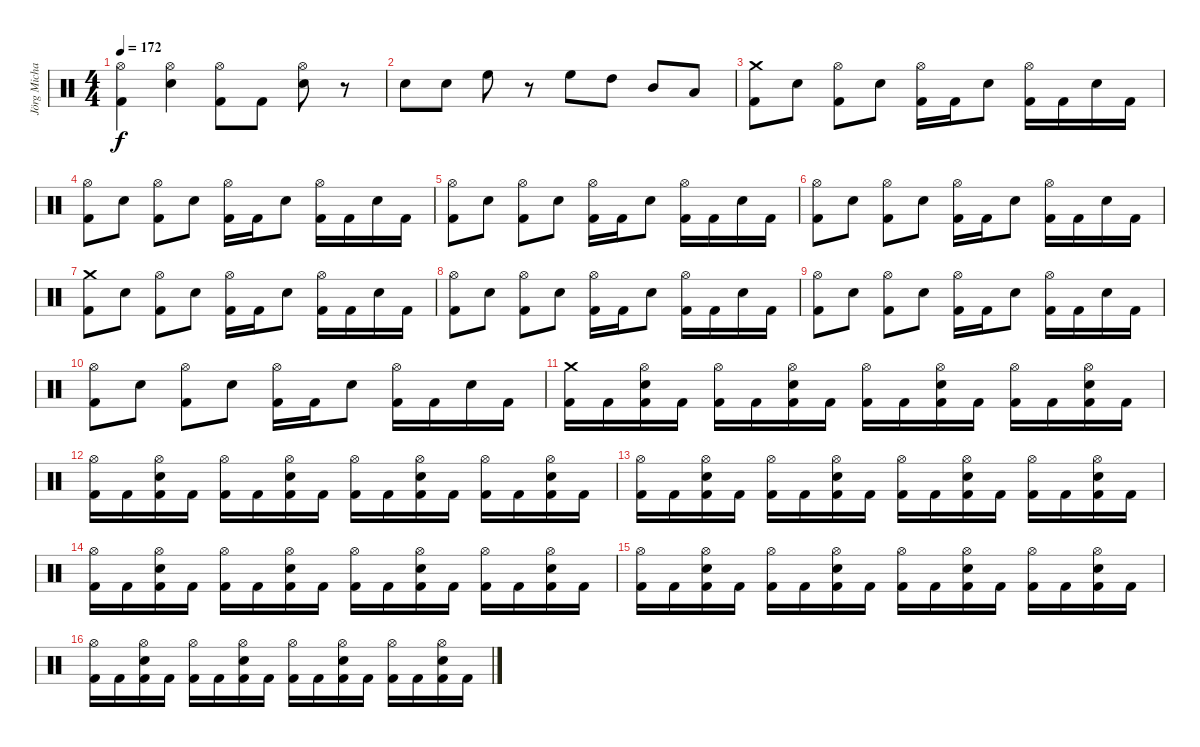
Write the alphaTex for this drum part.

\track ("Jörg Michael" "Jörg Micha") {instrument percussion}
\staff {score}
\articulation defaults
\ts (4 4)
\tempo 172
\clef neutral
\ks c
("Hi-Hat (open)" "Kick (hit) 2").4{dy f} ("Hi-Hat (open)" "Electric Snare (hit)").4 ("Hi-Hat (open)" "Kick (hit) 2").8 "Kick (hit) 2".8 ("Hi-Hat (open)" "Electric Snare (hit)").8 r.8 |
"Electric Snare (hit)".8 "Electric Snare (hit)".8 "High Floor Tom (hit)".8 r.8 "High Floor Tom (hit)".8 "High Tom (hit)".8 "Mid Tom (hit)".8 "Low Tom (hit)".8 |
("Crash medium (hit)" "Kick (hit) 2").8 "Electric Snare (hit)".8 ("Hi-Hat (open)" "Kick (hit) 2").8 "Electric Snare (hit)".8 ("Hi-Hat (open)" "Kick (hit) 2").16 "Kick (hit) 2".16 "Electric Snare (hit)".8 ("Hi-Hat (open)" "Kick (hit) 2").16 "Kick (hit) 2".16 "Electric Snare (hit)".16 "Kick (hit) 2".16 |
("Hi-Hat (open)" "Kick (hit) 2").8 "Electric Snare (hit)".8 ("Hi-Hat (open)" "Kick (hit) 2").8 "Electric Snare (hit)".8 ("Hi-Hat (open)" "Kick (hit) 2").16 "Kick (hit) 2".16 "Electric Snare (hit)".8 ("Hi-Hat (open)" "Kick (hit) 2").16 "Kick (hit) 2".16 "Electric Snare (hit)".16 "Kick (hit) 2".16 |
("Hi-Hat (open)" "Kick (hit) 2").8 "Electric Snare (hit)".8 ("Hi-Hat (open)" "Kick (hit) 2").8 "Electric Snare (hit)".8 ("Hi-Hat (open)" "Kick (hit) 2").16 "Kick (hit) 2".16 "Electric Snare (hit)".8 ("Hi-Hat (open)" "Kick (hit) 2").16 "Kick (hit) 2".16 "Electric Snare (hit)".16 "Kick (hit) 2".16 |
("Hi-Hat (open)" "Kick (hit) 2").8 "Electric Snare (hit)".8 ("Hi-Hat (open)" "Kick (hit) 2").8 "Electric Snare (hit)".8 ("Hi-Hat (open)" "Kick (hit) 2").16 "Kick (hit) 2".16 "Electric Snare (hit)".8 ("Hi-Hat (open)" "Kick (hit) 2").16 "Kick (hit) 2".16 "Electric Snare (hit)".16 "Kick (hit) 2".16 |
("Crash medium (hit)" "Kick (hit) 2").8 "Electric Snare (hit)".8 ("Hi-Hat (open)" "Kick (hit) 2").8 "Electric Snare (hit)".8 ("Hi-Hat (open)" "Kick (hit) 2").16 "Kick (hit) 2".16 "Electric Snare (hit)".8 ("Hi-Hat (open)" "Kick (hit) 2").16 "Kick (hit) 2".16 "Electric Snare (hit)".16 "Kick (hit) 2".16 |
("Hi-Hat (open)" "Kick (hit) 2").8 "Electric Snare (hit)".8 ("Hi-Hat (open)" "Kick (hit) 2").8 "Electric Snare (hit)".8 ("Hi-Hat (open)" "Kick (hit) 2").16 "Kick (hit) 2".16 "Electric Snare (hit)".8 ("Hi-Hat (open)" "Kick (hit) 2").16 "Kick (hit) 2".16 "Electric Snare (hit)".16 "Kick (hit) 2".16 |
("Hi-Hat (open)" "Kick (hit) 2").8 "Electric Snare (hit)".8 ("Hi-Hat (open)" "Kick (hit) 2").8 "Electric Snare (hit)".8 ("Hi-Hat (open)" "Kick (hit) 2").16 "Kick (hit) 2".16 "Electric Snare (hit)".8 ("Hi-Hat (open)" "Kick (hit) 2").16 "Kick (hit) 2".16 "Electric Snare (hit)".16 "Kick (hit) 2".16 |
("Hi-Hat (open)" "Kick (hit) 2").8 "Electric Snare (hit)".8 ("Hi-Hat (open)" "Kick (hit) 2").8 "Electric Snare (hit)".8 ("Hi-Hat (open)" "Kick (hit) 2").16 "Kick (hit) 2".16 "Electric Snare (hit)".8 ("Hi-Hat (open)" "Kick (hit) 2").16 "Kick (hit) 2".16 "Electric Snare (hit)".16 "Kick (hit) 2".16 |
("Crash medium (hit)" "Kick (hit) 2").16 "Kick (hit) 2".16 ("Hi-Hat (open)" "Kick (hit) 2" "Electric Snare (hit)").16 "Kick (hit) 2".16 ("Hi-Hat (open)" "Kick (hit) 2").16 "Kick (hit) 2".16 ("Hi-Hat (open)" "Kick (hit) 2" "Electric Snare (hit)").16 "Kick (hit) 2".16 ("Hi-Hat (open)" "Kick (hit) 2").16 "Kick (hit) 2".16 ("Hi-Hat (open)" "Kick (hit) 2" "Electric Snare (hit)").16 "Kick (hit) 2".16 ("Hi-Hat (open)" "Kick (hit) 2").16 "Kick (hit) 2".16 ("Hi-Hat (open)" "Kick (hit) 2" "Electric Snare (hit)").16 "Kick (hit) 2".16 |
("Hi-Hat (open)" "Kick (hit) 2").16 "Kick (hit) 2".16 ("Hi-Hat (open)" "Kick (hit) 2" "Electric Snare (hit)").16 "Kick (hit) 2".16 ("Hi-Hat (open)" "Kick (hit) 2").16 "Kick (hit) 2".16 ("Hi-Hat (open)" "Kick (hit) 2" "Electric Snare (hit)").16 "Kick (hit) 2".16 ("Hi-Hat (open)" "Kick (hit) 2").16 "Kick (hit) 2".16 ("Hi-Hat (open)" "Kick (hit) 2" "Electric Snare (hit)").16 "Kick (hit) 2".16 ("Hi-Hat (open)" "Kick (hit) 2").16 "Kick (hit) 2".16 ("Hi-Hat (open)" "Kick (hit) 2" "Electric Snare (hit)").16 "Kick (hit) 2".16 |
("Hi-Hat (open)" "Kick (hit) 2").16 "Kick (hit) 2".16 ("Hi-Hat (open)" "Kick (hit) 2" "Electric Snare (hit)").16 "Kick (hit) 2".16 ("Hi-Hat (open)" "Kick (hit) 2").16 "Kick (hit) 2".16 ("Hi-Hat (open)" "Kick (hit) 2" "Electric Snare (hit)").16 "Kick (hit) 2".16 ("Hi-Hat (open)" "Kick (hit) 2").16 "Kick (hit) 2".16 ("Hi-Hat (open)" "Kick (hit) 2" "Electric Snare (hit)").16 "Kick (hit) 2".16 ("Hi-Hat (open)" "Kick (hit) 2").16 "Kick (hit) 2".16 ("Hi-Hat (open)" "Kick (hit) 2" "Electric Snare (hit)").16 "Kick (hit) 2".16 |
("Hi-Hat (open)" "Kick (hit) 2").16 "Kick (hit) 2".16 ("Hi-Hat (open)" "Kick (hit) 2" "Electric Snare (hit)").16 "Kick (hit) 2".16 ("Hi-Hat (open)" "Kick (hit) 2").16 "Kick (hit) 2".16 ("Hi-Hat (open)" "Kick (hit) 2" "Electric Snare (hit)").16 "Kick (hit) 2".16 ("Hi-Hat (open)" "Kick (hit) 2").16 "Kick (hit) 2".16 ("Hi-Hat (open)" "Kick (hit) 2" "Electric Snare (hit)").16 "Kick (hit) 2".16 ("Hi-Hat (open)" "Kick (hit) 2").16 "Kick (hit) 2".16 ("Hi-Hat (open)" "Kick (hit) 2" "Electric Snare (hit)").16 "Kick (hit) 2".16 |
("Hi-Hat (open)" "Kick (hit) 2").16 "Kick (hit) 2".16 ("Hi-Hat (open)" "Kick (hit) 2" "Electric Snare (hit)").16 "Kick (hit) 2".16 ("Hi-Hat (open)" "Kick (hit) 2").16 "Kick (hit) 2".16 ("Hi-Hat (open)" "Kick (hit) 2" "Electric Snare (hit)").16 "Kick (hit) 2".16 ("Hi-Hat (open)" "Kick (hit) 2").16 "Kick (hit) 2".16 ("Hi-Hat (open)" "Kick (hit) 2" "Electric Snare (hit)").16 "Kick (hit) 2".16 ("Hi-Hat (open)" "Kick (hit) 2").16 "Kick (hit) 2".16 ("Hi-Hat (open)" "Kick (hit) 2" "Electric Snare (hit)").16 "Kick (hit) 2".16 |
("Hi-Hat (open)" "Kick (hit) 2").16 "Kick (hit) 2".16 ("Hi-Hat (open)" "Kick (hit) 2" "Electric Snare (hit)").16 "Kick (hit) 2".16 ("Hi-Hat (open)" "Kick (hit) 2").16 "Kick (hit) 2".16 ("Hi-Hat (open)" "Kick (hit) 2" "Electric Snare (hit)").16 "Kick (hit) 2".16 ("Hi-Hat (open)" "Kick (hit) 2").16 "Kick (hit) 2".16 ("Hi-Hat (open)" "Kick (hit) 2" "Electric Snare (hit)").16 "Kick (hit) 2".16 ("Hi-Hat (open)" "Kick (hit) 2").16 "Kick (hit) 2".16 ("Hi-Hat (open)" "Kick (hit) 2" "Electric Snare (hit)").16 "Kick (hit) 2".16
